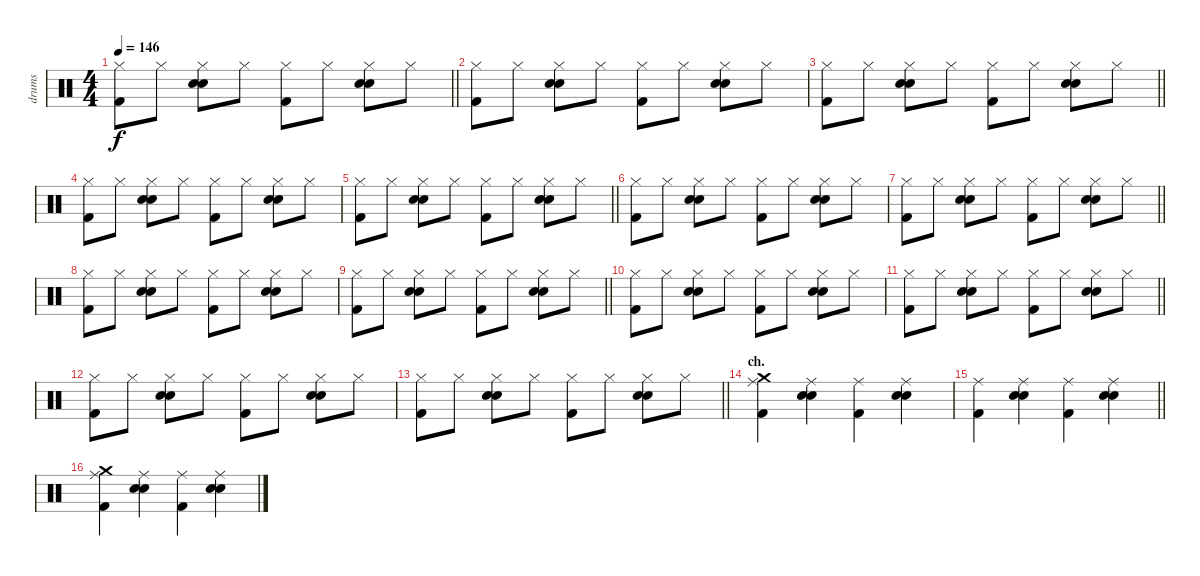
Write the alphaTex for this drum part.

\track ("drums " "drums ") {instrument percussion}
\staff {score}
\articulation defaults
\ts (4 4)
\tempo 146
\clef neutral
\barLineRight lightlight
\ks c
("Kick (hit) 2" "Hi-Hat (closed)").8{dy f} "Hi-Hat (closed)".8 ("Electric Snare (hit)" "Snare (hit) 2" "Hi-Hat (closed)").8 "Hi-Hat (closed)".8 ("Kick (hit) 2" "Hi-Hat (closed)").8 "Hi-Hat (closed)".8 ("Electric Snare (hit)" "Snare (hit) 2" "Hi-Hat (closed)").8 "Hi-Hat (closed)".8 |
("Kick (hit) 2" "Hi-Hat (closed)").8 "Hi-Hat (closed)".8 ("Electric Snare (hit)" "Snare (hit) 2" "Hi-Hat (closed)").8 "Hi-Hat (closed)".8 ("Kick (hit) 2" "Hi-Hat (closed)").8 "Hi-Hat (closed)".8 ("Electric Snare (hit)" "Snare (hit) 2" "Hi-Hat (closed)").8 "Hi-Hat (closed)".8 |
\barLineRight lightlight
("Kick (hit) 2" "Hi-Hat (closed)").8 "Hi-Hat (closed)".8 ("Electric Snare (hit)" "Snare (hit) 2" "Hi-Hat (closed)").8 "Hi-Hat (closed)".8 ("Kick (hit) 2" "Hi-Hat (closed)").8 "Hi-Hat (closed)".8 ("Electric Snare (hit)" "Snare (hit) 2" "Hi-Hat (closed)").8 "Hi-Hat (closed)".8 |
("Kick (hit) 2" "Hi-Hat (closed)").8 "Hi-Hat (closed)".8 ("Electric Snare (hit)" "Snare (hit) 2" "Hi-Hat (closed)").8 "Hi-Hat (closed)".8 ("Kick (hit) 2" "Hi-Hat (closed)").8 "Hi-Hat (closed)".8 ("Electric Snare (hit)" "Snare (hit) 2" "Hi-Hat (closed)").8 "Hi-Hat (closed)".8 |
\barLineRight lightlight
("Kick (hit) 2" "Hi-Hat (closed)").8 "Hi-Hat (closed)".8 ("Electric Snare (hit)" "Snare (hit) 2" "Hi-Hat (closed)").8 "Hi-Hat (closed)".8 ("Kick (hit) 2" "Hi-Hat (closed)").8 "Hi-Hat (closed)".8 ("Electric Snare (hit)" "Snare (hit) 2" "Hi-Hat (closed)").8 "Hi-Hat (closed)".8 |
("Kick (hit) 2" "Hi-Hat (closed)").8 "Hi-Hat (closed)".8 ("Electric Snare (hit)" "Snare (hit) 2" "Hi-Hat (closed)").8 "Hi-Hat (closed)".8 ("Kick (hit) 2" "Hi-Hat (closed)").8 "Hi-Hat (closed)".8 ("Electric Snare (hit)" "Snare (hit) 2" "Hi-Hat (closed)").8 "Hi-Hat (closed)".8 |
\barLineRight lightlight
("Kick (hit) 2" "Hi-Hat (closed)").8 "Hi-Hat (closed)".8 ("Electric Snare (hit)" "Snare (hit) 2" "Hi-Hat (closed)").8 "Hi-Hat (closed)".8 ("Kick (hit) 2" "Hi-Hat (closed)").8 "Hi-Hat (closed)".8 ("Electric Snare (hit)" "Snare (hit) 2" "Hi-Hat (closed)").8 "Hi-Hat (closed)".8 |
("Kick (hit) 2" "Hi-Hat (closed)").8 "Hi-Hat (closed)".8 ("Electric Snare (hit)" "Snare (hit) 2" "Hi-Hat (closed)").8 "Hi-Hat (closed)".8 ("Kick (hit) 2" "Hi-Hat (closed)").8 "Hi-Hat (closed)".8 ("Electric Snare (hit)" "Snare (hit) 2" "Hi-Hat (closed)").8 "Hi-Hat (closed)".8 |
\barLineRight lightlight
("Kick (hit) 2" "Hi-Hat (closed)").8 "Hi-Hat (closed)".8 ("Electric Snare (hit)" "Snare (hit) 2" "Hi-Hat (closed)").8 "Hi-Hat (closed)".8 ("Kick (hit) 2" "Hi-Hat (closed)").8 "Hi-Hat (closed)".8 ("Electric Snare (hit)" "Snare (hit) 2" "Hi-Hat (closed)").8 "Hi-Hat (closed)".8 |
("Kick (hit) 2" "Hi-Hat (closed)").8 "Hi-Hat (closed)".8 ("Electric Snare (hit)" "Snare (hit) 2" "Hi-Hat (closed)").8 "Hi-Hat (closed)".8 ("Kick (hit) 2" "Hi-Hat (closed)").8 "Hi-Hat (closed)".8 ("Electric Snare (hit)" "Snare (hit) 2" "Hi-Hat (closed)").8 "Hi-Hat (closed)".8 |
\barLineRight lightlight
("Kick (hit) 2" "Hi-Hat (closed)").8 "Hi-Hat (closed)".8 ("Electric Snare (hit)" "Snare (hit) 2" "Hi-Hat (closed)").8 "Hi-Hat (closed)".8 ("Kick (hit) 2" "Hi-Hat (closed)").8 "Hi-Hat (closed)".8 ("Electric Snare (hit)" "Snare (hit) 2" "Hi-Hat (closed)").8 "Hi-Hat (closed)".8 |
("Kick (hit) 2" "Hi-Hat (closed)").8 "Hi-Hat (closed)".8 ("Electric Snare (hit)" "Snare (hit) 2" "Hi-Hat (closed)").8 "Hi-Hat (closed)".8 ("Kick (hit) 2" "Hi-Hat (closed)").8 "Hi-Hat (closed)".8 ("Electric Snare (hit)" "Snare (hit) 2" "Hi-Hat (closed)").8 "Hi-Hat (closed)".8 |
\barLineRight lightlight
("Kick (hit) 2" "Hi-Hat (closed)").8 "Hi-Hat (closed)".8 ("Electric Snare (hit)" "Snare (hit) 2" "Hi-Hat (closed)").8 "Hi-Hat (closed)".8 ("Kick (hit) 2" "Hi-Hat (closed)").8 "Hi-Hat (closed)".8 ("Electric Snare (hit)" "Snare (hit) 2" "Hi-Hat (closed)").8 "Hi-Hat (closed)".8 |
\section ("" "ch.")
("Crash medium (hit)" "Ride (middle)" "Kick (hit) 2").4 ("Ride (middle)" "Electric Snare (hit)" "Snare (hit) 2").4 ("Ride (middle)" "Kick (hit) 2").4 ("Ride (middle)" "Electric Snare (hit)" "Snare (hit) 2").4 |
\barLineRight lightlight
("Ride (middle)" "Kick (hit) 2").4 ("Ride (middle)" "Electric Snare (hit)" "Snare (hit) 2").4 ("Ride (middle)" "Kick (hit) 2").4 ("Ride (middle)" "Electric Snare (hit)" "Snare (hit) 2").4 |
("Crash medium (hit)" "Ride (middle)" "Kick (hit) 2").4 ("Ride (middle)" "Electric Snare (hit)" "Snare (hit) 2").4 ("Ride (middle)" "Kick (hit) 2").4 ("Ride (middle)" "Electric Snare (hit)" "Snare (hit) 2").4
